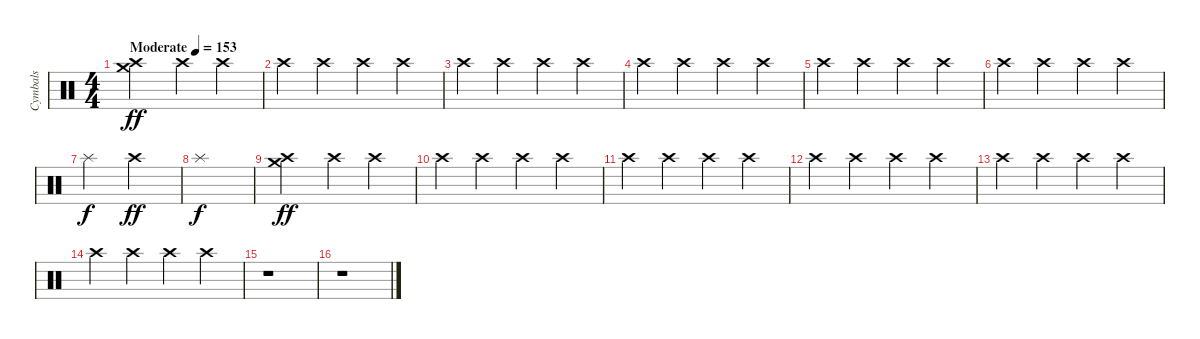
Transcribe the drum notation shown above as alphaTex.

\track ("Cymbals" "Cymbals") {instrument percussion}
\staff {score}
\articulation defaults
\ts (4 4)
\tempo (153 "Moderate")
\clef neutral
\ks c
("Crash medium (hit)" "Crash high (hit)").2{dy ff} "Crash high (hit)".4 "Crash high (hit)".4 |
"Crash high (hit)".4 "Crash high (hit)".4 "Crash high (hit)".4 "Crash high (hit)".4 |
"Crash high (hit)".4 "Crash high (hit)".4 "Crash high (hit)".4 "Crash high (hit)".4 |
"Crash high (hit)".4 "Crash high (hit)".4 "Crash high (hit)".4 "Crash high (hit)".4 |
"Crash high (hit)".4 "Crash high (hit)".4 "Crash high (hit)".4 "Crash high (hit)".4 |
"Crash high (hit)".4 "Crash high (hit)".4 "Crash high (hit)".4 "Crash high (hit)".4 |
"Splash (hit)".2{dy f} "Crash high (hit)".2{dy ff} |
"Splash (hit)".1{dy f} |
("Crash medium (hit)" "Crash high (hit)").2{dy ff} "Crash high (hit)".4 "Crash high (hit)".4 |
"Crash high (hit)".4 "Crash high (hit)".4 "Crash high (hit)".4 "Crash high (hit)".4 |
"Crash high (hit)".4 "Crash high (hit)".4 "Crash high (hit)".4 "Crash high (hit)".4 |
"Crash high (hit)".4 "Crash high (hit)".4 "Crash high (hit)".4 "Crash high (hit)".4 |
"Crash high (hit)".4 "Crash high (hit)".4 "Crash high (hit)".4 "Crash high (hit)".4 |
"Crash high (hit)".4 "Crash high (hit)".4 "Crash high (hit)".4 "Crash high (hit)".4 |
r.1 |
r.1
